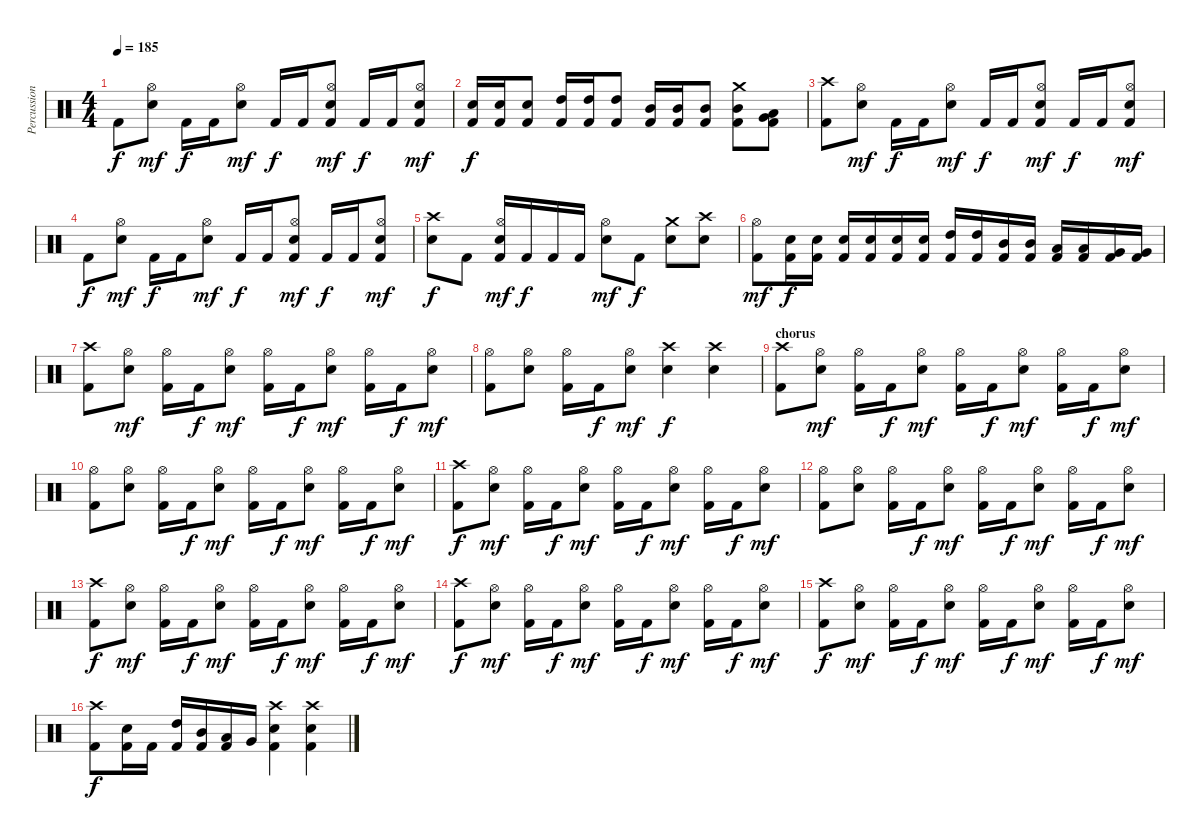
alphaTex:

\track ("Percussion" "Percussion") {instrument percussion}
\staff {score}
\articulation defaults
\ts (4 4)
\section ("" "")
\tempo 185
\clef neutral
\ks c "Kick (hit) 2".8{dy f}
("Hi-Hat (open)" "Electric Snare (hit)").8{dy mf} "Kick (hit) 2".16{dy f} "Kick (hit) 2".16 ("Hi-Hat (open)" "Electric Snare (hit)").8{dy mf} "Kick (hit) 2".16{dy f} "Kick (hit) 2".16 ("Hi-Hat (open)" "Electric Snare (hit)" "Kick (hit) 2").8{dy mf} "Kick (hit) 2".16{dy f} "Kick (hit) 2".16 ("Hi-Hat (open)" "Electric Snare (hit)" "Kick (hit) 2").8{dy mf} |
("Electric Snare (hit)" "Kick (hit) 2").16{dy f} ("Electric Snare (hit)" "Kick (hit) 2").16 ("Electric Snare (hit)" "Kick (hit) 2").8 ("High Tom (hit)" "Kick (hit) 2").16 ("High Tom (hit)" "Kick (hit) 2").16 ("High Tom (hit)" "Kick (hit) 2").8 ("Mid Tom (hit)" "Kick (hit) 2").16 ("Mid Tom (hit)" "Kick (hit) 2").16 ("Mid Tom (hit)" "Kick (hit) 2").8 ("Crash medium (hit)" "Mid Tom (hit)" "Kick (hit) 2").8 ("Low Tom (hit)" "Very Low Tom (hit)" "Kick (hit) 2").8 |
("Crash high (hit)" "Kick (hit) 2").8 ("Hi-Hat (open)" "Electric Snare (hit)").8{dy mf} "Kick (hit) 2".16{dy f} "Kick (hit) 2".16 ("Hi-Hat (open)" "Electric Snare (hit)").8{dy mf} "Kick (hit) 2".16{dy f} "Kick (hit) 2".16 ("Hi-Hat (open)" "Electric Snare (hit)" "Kick (hit) 2").8{dy mf} "Kick (hit) 2".16{dy f} "Kick (hit) 2".16 ("Hi-Hat (open)" "Electric Snare (hit)" "Kick (hit) 2").8{dy mf} |
"Kick (hit) 2".8{dy f} ("Hi-Hat (open)" "Electric Snare (hit)").8{dy mf} "Kick (hit) 2".16{dy f} "Kick (hit) 2".16 ("Hi-Hat (open)" "Electric Snare (hit)").8{dy mf} "Kick (hit) 2".16{dy f} "Kick (hit) 2".16 ("Hi-Hat (open)" "Electric Snare (hit)" "Kick (hit) 2").8{dy mf} "Kick (hit) 2".16{dy f} "Kick (hit) 2".16 ("Hi-Hat (open)" "Electric Snare (hit)" "Kick (hit) 2").8{dy mf} |
("Crash high (hit)" "Electric Snare (hit)").8{dy f} "Kick (hit) 2".8 ("Hi-Hat (open)" "Electric Snare (hit)" "Kick (hit) 2").16{dy mf} "Kick (hit) 2".16{dy f} "Kick (hit) 2".16 "Kick (hit) 2".16 ("Hi-Hat (open)" "Electric Snare (hit)").8{dy mf} "Kick (hit) 2".8{dy f} ("Crash medium (hit)" "Electric Snare (hit)").8 ("Crash high (hit)" "Electric Snare (hit)").8 |
("Hi-Hat (open)" "Kick (hit) 2").8{dy mf} ("Electric Snare (hit)" "Kick (hit) 2").16{dy f} ("Electric Snare (hit)" "Kick (hit) 2").16 ("Electric Snare (hit)" "Kick (hit) 2").16 ("Electric Snare (hit)" "Kick (hit) 2").16 ("Electric Snare (hit)" "Kick (hit) 2").16 ("Electric Snare (hit)" "Kick (hit) 2").16 ("High Tom (hit)" "Kick (hit) 2").16 ("High Tom (hit)" "Kick (hit) 2").16 ("Mid Tom (hit)" "Kick (hit) 2").16 ("Mid Tom (hit)" "Kick (hit) 2").16 ("Low Tom (hit)" "Kick (hit) 2").16 ("Low Tom (hit)" "Kick (hit) 2").16 ("Very Low Tom (hit)" "Kick (hit) 2").16 ("Very Low Tom (hit)" "Kick (hit) 2").16 |
("Crash high (hit)" "Kick (hit) 2").8 ("Hi-Hat (open)" "Electric Snare (hit)").8{dy mf} ("Hi-Hat (open)" "Kick (hit) 2").16 "Kick (hit) 2".16{dy f} ("Hi-Hat (open)" "Electric Snare (hit)").8{dy mf} ("Hi-Hat (open)" "Kick (hit) 2").16 "Kick (hit) 2".16{dy f} ("Hi-Hat (open)" "Electric Snare (hit)").8{dy mf} ("Hi-Hat (open)" "Kick (hit) 2").16 "Kick (hit) 2".16{dy f} ("Hi-Hat (open)" "Electric Snare (hit)").8{dy mf} |
("Hi-Hat (open)" "Kick (hit) 2").8 ("Hi-Hat (open)" "Electric Snare (hit)").8 ("Hi-Hat (open)" "Kick (hit) 2").16 "Kick (hit) 2".16{dy f} ("Hi-Hat (open)" "Electric Snare (hit)").8{dy mf} ("Crash high (hit)" "Electric Snare (hit)").4{dy f} ("Crash high (hit)" "Electric Snare (hit)").4 |
\section ("" "chorus")
("Crash high (hit)" "Kick (hit) 2").8 ("Hi-Hat (open)" "Electric Snare (hit)").8{dy mf} ("Hi-Hat (open)" "Kick (hit) 2").16 "Kick (hit) 2".16{dy f} ("Hi-Hat (open)" "Electric Snare (hit)").8{dy mf} ("Hi-Hat (open)" "Kick (hit) 2").16 "Kick (hit) 2".16{dy f} ("Hi-Hat (open)" "Electric Snare (hit)").8{dy mf} ("Hi-Hat (open)" "Kick (hit) 2").16 "Kick (hit) 2".16{dy f} ("Hi-Hat (open)" "Electric Snare (hit)").8{dy mf} |
("Hi-Hat (open)" "Kick (hit) 2").8 ("Hi-Hat (open)" "Electric Snare (hit)").8 ("Hi-Hat (open)" "Kick (hit) 2").16 "Kick (hit) 2".16{dy f} ("Hi-Hat (open)" "Electric Snare (hit)").8{dy mf} ("Hi-Hat (open)" "Kick (hit) 2").16 "Kick (hit) 2".16{dy f} ("Hi-Hat (open)" "Electric Snare (hit)").8{dy mf} ("Hi-Hat (open)" "Kick (hit) 2").16 "Kick (hit) 2".16{dy f} ("Hi-Hat (open)" "Electric Snare (hit)").8{dy mf} |
("Crash high (hit)" "Kick (hit) 2").8{dy f} ("Hi-Hat (open)" "Electric Snare (hit)").8{dy mf} ("Hi-Hat (open)" "Kick (hit) 2").16 "Kick (hit) 2".16{dy f} ("Hi-Hat (open)" "Electric Snare (hit)").8{dy mf} ("Hi-Hat (open)" "Kick (hit) 2").16 "Kick (hit) 2".16{dy f} ("Hi-Hat (open)" "Electric Snare (hit)").8{dy mf} ("Hi-Hat (open)" "Kick (hit) 2").16 "Kick (hit) 2".16{dy f} ("Hi-Hat (open)" "Electric Snare (hit)").8{dy mf} |
("Hi-Hat (open)" "Kick (hit) 2").8 ("Hi-Hat (open)" "Electric Snare (hit)").8 ("Hi-Hat (open)" "Kick (hit) 2").16 "Kick (hit) 2".16{dy f} ("Hi-Hat (open)" "Electric Snare (hit)").8{dy mf} ("Hi-Hat (open)" "Kick (hit) 2").16 "Kick (hit) 2".16{dy f} ("Hi-Hat (open)" "Electric Snare (hit)").8{dy mf} ("Hi-Hat (open)" "Kick (hit) 2").16 "Kick (hit) 2".16{dy f} ("Hi-Hat (open)" "Electric Snare (hit)").8{dy mf} |
("Crash high (hit)" "Kick (hit) 2").8{dy f} ("Hi-Hat (open)" "Electric Snare (hit)").8{dy mf} ("Hi-Hat (open)" "Kick (hit) 2").16 "Kick (hit) 2".16{dy f} ("Hi-Hat (open)" "Electric Snare (hit)").8{dy mf} ("Hi-Hat (open)" "Kick (hit) 2").16 "Kick (hit) 2".16{dy f} ("Hi-Hat (open)" "Electric Snare (hit)").8{dy mf} ("Hi-Hat (open)" "Kick (hit) 2").16 "Kick (hit) 2".16{dy f} ("Hi-Hat (open)" "Electric Snare (hit)").8{dy mf} |
("Crash high (hit)" "Kick (hit) 2").8{dy f} ("Hi-Hat (open)" "Electric Snare (hit)").8{dy mf} ("Hi-Hat (open)" "Kick (hit) 2").16 "Kick (hit) 2".16{dy f} ("Hi-Hat (open)" "Electric Snare (hit)").8{dy mf} ("Hi-Hat (open)" "Kick (hit) 2").16 "Kick (hit) 2".16{dy f} ("Hi-Hat (open)" "Electric Snare (hit)").8{dy mf} ("Hi-Hat (open)" "Kick (hit) 2").16 "Kick (hit) 2".16{dy f} ("Hi-Hat (open)" "Electric Snare (hit)").8{dy mf} |
("Crash high (hit)" "Kick (hit) 2").8{dy f} ("Hi-Hat (open)" "Electric Snare (hit)").8{dy mf} ("Hi-Hat (open)" "Kick (hit) 2").16 "Kick (hit) 2".16{dy f} ("Hi-Hat (open)" "Electric Snare (hit)").8{dy mf} ("Hi-Hat (open)" "Kick (hit) 2").16 "Kick (hit) 2".16{dy f} ("Hi-Hat (open)" "Electric Snare (hit)").8{dy mf} ("Hi-Hat (open)" "Kick (hit) 2").16 "Kick (hit) 2".16{dy f} ("Hi-Hat (open)" "Electric Snare (hit)").8{dy mf} |
("Crash high (hit)" "Kick (hit) 2").8{dy f} ("Electric Snare (hit)" "Kick (hit) 2").16 "Kick (hit) 2".16 ("High Tom (hit)" "Kick (hit) 2").16 ("Mid Tom (hit)" "Kick (hit) 2").16 ("Low Tom (hit)" "Kick (hit) 2").16 "Very Low Tom (hit)".16 ("Crash high (hit)" "Electric Snare (hit)" "Kick (hit) 2").4 ("Crash high (hit)" "Electric Snare (hit)" "Kick (hit) 2").4
